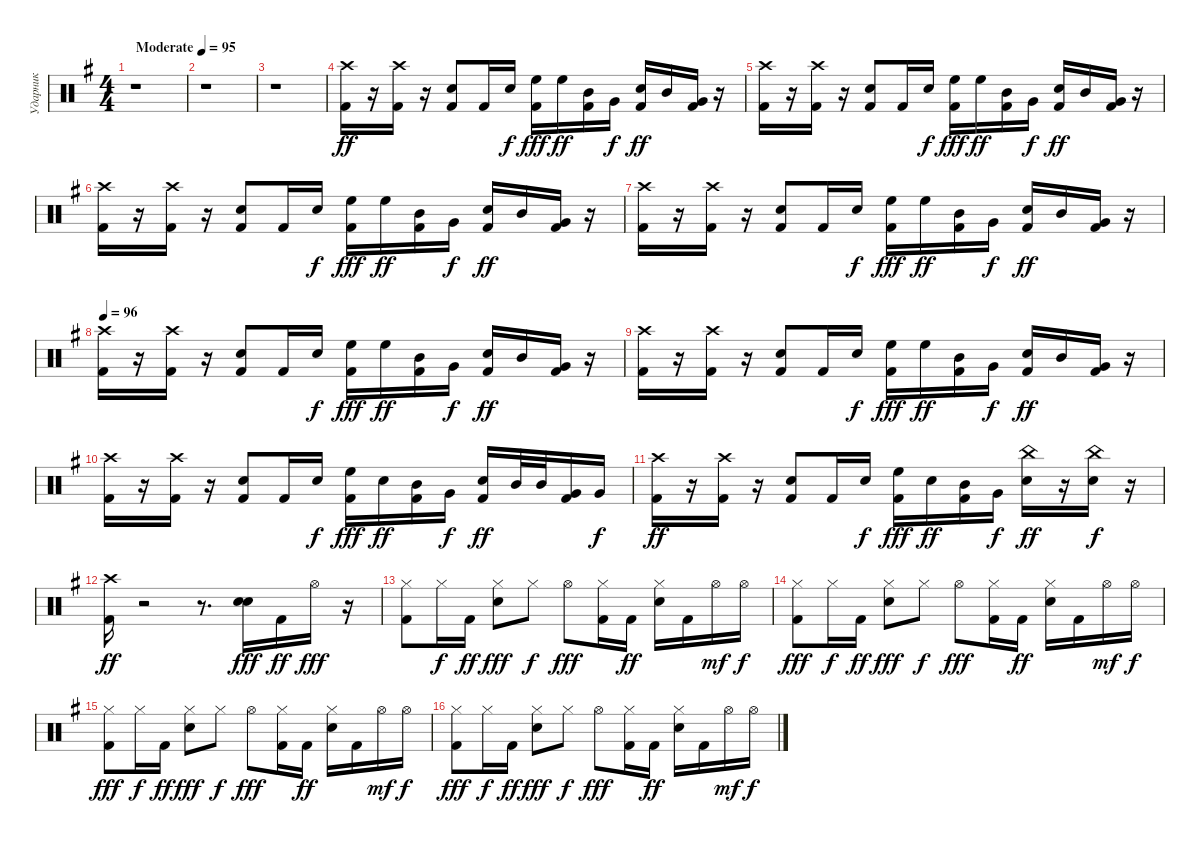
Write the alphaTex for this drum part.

\track ("Ударник" "Ударник") {instrument percussion}
\staff {score}
\articulation defaults
\ts (4 4)
\tempo (95 "Moderate")
\clef neutral
\ks eminor
r.1{dy ff} |
r.1 |
r.1 |
("Kick (hit) 2" "Crash high (hit)").16 r.16 ("Kick (hit) 2" "Crash high (hit)").16 r.16 ("Kick (hit) 2" "Snare (hit) 2").8 "Kick (hit) 2".16 "Snare (hit) 2".16{dy f} ("Kick (hit) 2" "High Floor Tom (hit)").16{dy fff} "High Floor Tom (hit)".16{dy ff} ("Kick (hit) 2" "Mid Tom (hit)").16 "Very Low Tom (hit)".16{dy f} ("Kick (hit) 2" "Snare (hit) 2").16{dy ff} "Mid Tom (hit)".16 ("Kick (hit) 2" "Very Low Tom (hit)").16 r.16 |
("Kick (hit) 2" "Crash high (hit)").16 r.16 ("Kick (hit) 2" "Crash high (hit)").16 r.16 ("Kick (hit) 2" "Snare (hit) 2").8 "Kick (hit) 2".16 "Snare (hit) 2".16{dy f} ("Kick (hit) 2" "High Floor Tom (hit)").16{dy fff} "High Floor Tom (hit)".16{dy ff} ("Kick (hit) 2" "Mid Tom (hit)").16 "Very Low Tom (hit)".16{dy f} ("Kick (hit) 2" "Snare (hit) 2").16{dy ff} "Mid Tom (hit)".16 ("Kick (hit) 2" "Very Low Tom (hit)").16 r.16 |
("Kick (hit) 2" "Crash high (hit)").16 r.16 ("Kick (hit) 2" "Crash high (hit)").16 r.16 ("Kick (hit) 2" "Snare (hit) 2").8 "Kick (hit) 2".16 "Snare (hit) 2".16{dy f} ("Kick (hit) 2" "High Floor Tom (hit)").16{dy fff} "High Floor Tom (hit)".16{dy ff} ("Kick (hit) 2" "Mid Tom (hit)").16 "Very Low Tom (hit)".16{dy f} ("Kick (hit) 2" "Snare (hit) 2").16{dy ff} "Mid Tom (hit)".16 ("Kick (hit) 2" "Very Low Tom (hit)").16 r.16 |
("Kick (hit) 2" "Crash high (hit)").16 r.16 ("Kick (hit) 2" "Crash high (hit)").16 r.16 ("Kick (hit) 2" "Snare (hit) 2").8 "Kick (hit) 2".16 "Snare (hit) 2".16{dy f} ("Kick (hit) 2" "High Floor Tom (hit)").16{dy fff} "High Floor Tom (hit)".16{dy ff} ("Kick (hit) 2" "Mid Tom (hit)").16 "Very Low Tom (hit)".16{dy f} ("Kick (hit) 2" "Snare (hit) 2").16{dy ff} "Mid Tom (hit)".16 ("Kick (hit) 2" "Very Low Tom (hit)").16 r.16 |
\tempo 96
("Kick (hit) 2" "Crash high (hit)").16 r.16 ("Kick (hit) 2" "Crash high (hit)").16 r.16 ("Kick (hit) 2" "Snare (hit) 2").8 "Kick (hit) 2".16 "Snare (hit) 2".16{dy f} ("Kick (hit) 2" "High Floor Tom (hit)").16{dy fff} "High Floor Tom (hit)".16{dy ff} ("Kick (hit) 2" "Mid Tom (hit)").16 "Very Low Tom (hit)".16{dy f} ("Kick (hit) 2" "Snare (hit) 2").16{dy ff} "Mid Tom (hit)".16 ("Kick (hit) 2" "Very Low Tom (hit)").16 r.16 |
("Kick (hit) 2" "Crash high (hit)").16 r.16 ("Kick (hit) 2" "Crash high (hit)").16 r.16 ("Kick (hit) 2" "Snare (hit) 2").8 "Kick (hit) 2".16 "Snare (hit) 2".16{dy f} ("Kick (hit) 2" "High Floor Tom (hit)").16{dy fff} "High Floor Tom (hit)".16{dy ff} ("Kick (hit) 2" "Mid Tom (hit)").16 "Very Low Tom (hit)".16{dy f} ("Kick (hit) 2" "Snare (hit) 2").16{dy ff} "Mid Tom (hit)".16 ("Kick (hit) 2" "Very Low Tom (hit)").16 r.16 |
("Kick (hit) 2" "Crash high (hit)").16 r.16 ("Kick (hit) 2" "Crash high (hit)").16 r.16 ("Kick (hit) 2" "Snare (hit) 2").8 "Kick (hit) 2".16 "Snare (hit) 2".16{dy f} ("Kick (hit) 2" "High Floor Tom (hit)").16{dy fff} "Snare (hit) 2".16{dy ff} ("Kick (hit) 2" "Mid Tom (hit)").16 "Very Low Tom (hit)".16{dy f} ("Kick (hit) 2" "Snare (hit) 2").16{dy ff} "Mid Tom (hit)".32 "Mid Tom (hit)".32 ("Kick (hit) 2" "Very Low Tom (hit)").16 "Very Low Tom (hit)".16{dy f} |
("Kick (hit) 2" "Crash high (hit)").16{dy ff} r.16 ("Kick (hit) 2" "Crash high (hit)").16 r.16 ("Kick (hit) 2" "Snare (hit) 2").8 "Kick (hit) 2".16 "Snare (hit) 2".16{dy f} ("Kick (hit) 2" "High Floor Tom (hit)").16{dy fff} "Snare (hit) 2".16{dy ff} ("Kick (hit) 2" "Mid Tom (hit)").16 "Very Low Tom (hit)".16{dy f} ("Snare (hit) 2" "China (hit)").16{dy ff} r.16 ("Snare (hit) 2" "China (hit)").16{dy f} r.16 |
("Kick (hit) 2" "Crash high (hit)").16{dy ff} r.2 r.8{d} ("Hand Clap (hit)" "Snare (hit) 2").16{dy fff} "Kick (hit) 2".16{dy ff} "Hi-Hat (open)".16{dy fff} r.16 |
("Kick (hit) 2" "Hi-Hat (closed)").8 "Hi-Hat (closed)".16{dy f} "Kick (hit) 2".16{dy ff} ("Snare (hit) 2" "Hi-Hat (closed)").8{dy fff} "Hi-Hat (closed)".8{dy f} "Hi-Hat (open)".8{dy fff} ("Kick (hit) 2" "Hi-Hat (closed)").16 "Kick (hit) 2".16{dy ff} ("Snare (hit) 2" "Hi-Hat (closed)").16 "Kick (hit) 2".16 "Hi-Hat (open)".16{dy mf} "Hi-Hat (open)".16{dy f} |
("Kick (hit) 2" "Hi-Hat (closed)").8{dy fff} "Hi-Hat (closed)".16{dy f} "Kick (hit) 2".16{dy ff} ("Snare (hit) 2" "Hi-Hat (closed)").8{dy fff} "Hi-Hat (closed)".8{dy f} "Hi-Hat (open)".8{dy fff} ("Kick (hit) 2" "Hi-Hat (closed)").16 "Kick (hit) 2".16{dy ff} ("Snare (hit) 2" "Hi-Hat (closed)").16 "Kick (hit) 2".16 "Hi-Hat (open)".16{dy mf} "Hi-Hat (open)".16{dy f} |
("Kick (hit) 2" "Hi-Hat (closed)").8{dy fff} "Hi-Hat (closed)".16{dy f} "Kick (hit) 2".16{dy ff} ("Snare (hit) 2" "Hi-Hat (closed)").8{dy fff} "Hi-Hat (closed)".8{dy f} "Hi-Hat (open)".8{dy fff} ("Kick (hit) 2" "Hi-Hat (closed)").16 "Kick (hit) 2".16{dy ff} ("Snare (hit) 2" "Hi-Hat (closed)").16 "Kick (hit) 2".16 "Hi-Hat (open)".16{dy mf} "Hi-Hat (open)".16{dy f} |
("Kick (hit) 2" "Hi-Hat (closed)").8{dy fff} "Hi-Hat (closed)".16{dy f} "Kick (hit) 2".16{dy ff} ("Snare (hit) 2" "Hi-Hat (closed)").8{dy fff} "Hi-Hat (closed)".8{dy f} "Hi-Hat (open)".8{dy fff} ("Kick (hit) 2" "Hi-Hat (closed)").16 "Kick (hit) 2".16{dy ff} ("Snare (hit) 2" "Hi-Hat (closed)").16 "Kick (hit) 2".16 "Hi-Hat (open)".16{dy mf} "Hi-Hat (open)".16{dy f}
